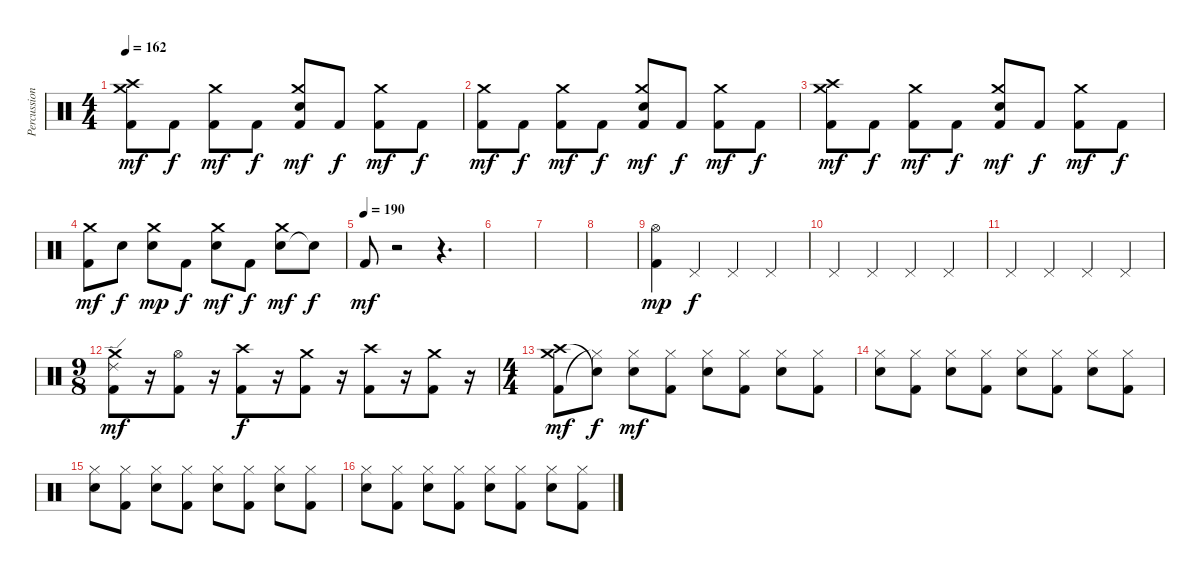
\track ("Percussion" "Percussion") {instrument percussion}
\staff {score}
\articulation defaults
\ts (4 4)
\tempo 162
\clef neutral
\ks c
("Kick (hit) 2" "Crash high (hit)" "Crash medium (hit)").8{dy mf} "Kick (hit) 2".8{dy f} ("Kick (hit) 2" "Crash medium (hit)").8{dy mf} "Kick (hit) 2".8{dy f} ("Kick (hit) 2" "Snare (hit) 2" "Crash medium (hit)").8{dy mf} "Kick (hit) 2".8{dy f} ("Kick (hit) 2" "Crash medium (hit)").8{dy mf} "Kick (hit) 2".8{dy f} |
("Kick (hit) 2" "Crash medium (hit)").8{dy mf} "Kick (hit) 2".8{dy f} ("Kick (hit) 2" "Crash medium (hit)").8{dy mf} "Kick (hit) 2".8{dy f} ("Kick (hit) 2" "Snare (hit) 2" "Crash medium (hit)").8{dy mf} "Kick (hit) 2".8{dy f} ("Kick (hit) 2" "Crash medium (hit)").8{dy mf} "Kick (hit) 2".8{dy f} |
("Kick (hit) 2" "Crash high (hit)" "Crash medium (hit)").8{dy mf} "Kick (hit) 2".8{dy f} ("Kick (hit) 2" "Crash medium (hit)").8{dy mf} "Kick (hit) 2".8{dy f} ("Kick (hit) 2" "Snare (hit) 2" "Crash medium (hit)").8{dy mf} "Kick (hit) 2".8{dy f} ("Kick (hit) 2" "Crash medium (hit)").8{dy mf} "Kick (hit) 2".8{dy f} |
("Kick (hit) 2" "Crash medium (hit)").8{dy mf} "Snare (hit) 2".8{dy f} ("Snare (hit) 2" "Crash medium (hit)").8{dy mp} "Kick (hit) 2".8{dy f} ("Snare (hit) 2" "Crash medium (hit)").8{dy mf} "Kick (hit) 2".8{dy f} ("Snare (hit) 2" "Crash medium (hit)").8{dy mf} "Snare (hit)"{t}.8{dy f} |
\tempo (190)
"Kick (hit) 2".8{dy mf} r.2 r.4{d} |
|
|
|
("Kick (hit) 2" "Hi-Hat (open)").4{dy mp} "Pedal Hi-Hat (hit)".4{dy f} "Pedal Hi-Hat (hit)".4 "Pedal Hi-Hat (hit)".4 |
"Pedal Hi-Hat (hit)".4 "Pedal Hi-Hat (hit)".4 "Pedal Hi-Hat (hit)".4 "Pedal Hi-Hat (hit)".4 |
"Pedal Hi-Hat (hit)".4 "Pedal Hi-Hat (hit)".4 "Pedal Hi-Hat (hit)".4 "Pedal Hi-Hat (hit)".4 |
\ts (9 8)
("Kick (hit) 2" "Crash medium (hit)" "Ride (edge) 2").8{dy mf} r.16 ("Kick (hit) 2" "Hi-Hat (open)").8 r.16 ("Kick (hit) 2" "Crash high (hit)").8{dy f} r.16 ("Kick (hit) 2" "Crash medium (hit)").8 r.16 ("Kick (hit) 2" "Crash high (hit)").8 r.16 ("Kick (hit) 2" "Crash medium (hit)").8 r.16 |
\ts (4 4)
("Kick (hit) 2" "Crash high (hit)" "Crash medium (hit)").8{dy mf} ("Hi-Hat (closed)"{t} "Snare (hit)"{t}).8{dy f} ("Snare (hit) 2" "Hi-Hat (closed)").8{dy mf} ("Kick (hit) 2" "Hi-Hat (closed)").8 ("Snare (hit) 2" "Hi-Hat (closed)").8 ("Kick (hit) 2" "Hi-Hat (closed)").8 ("Snare (hit) 2" "Hi-Hat (closed)").8 ("Kick (hit) 2" "Hi-Hat (closed)").8 |
("Snare (hit) 2" "Hi-Hat (closed)").8 ("Kick (hit) 2" "Hi-Hat (closed)").8 ("Snare (hit) 2" "Hi-Hat (closed)").8 ("Kick (hit) 2" "Hi-Hat (closed)").8 ("Snare (hit) 2" "Hi-Hat (closed)").8 ("Kick (hit) 2" "Hi-Hat (closed)").8 ("Snare (hit) 2" "Hi-Hat (closed)").8 ("Kick (hit) 2" "Hi-Hat (closed)").8 |
("Snare (hit) 2" "Hi-Hat (closed)").8 ("Kick (hit) 2" "Hi-Hat (closed)").8 ("Snare (hit) 2" "Hi-Hat (closed)").8 ("Kick (hit) 2" "Hi-Hat (closed)").8 ("Snare (hit) 2" "Hi-Hat (closed)").8 ("Kick (hit) 2" "Hi-Hat (closed)").8 ("Snare (hit) 2" "Hi-Hat (closed)").8 ("Kick (hit) 2" "Hi-Hat (closed)").8 |
("Snare (hit) 2" "Hi-Hat (closed)").8 ("Kick (hit) 2" "Hi-Hat (closed)").8 ("Snare (hit) 2" "Hi-Hat (closed)").8 ("Kick (hit) 2" "Hi-Hat (closed)").8 ("Snare (hit) 2" "Hi-Hat (closed)").8 ("Kick (hit) 2" "Hi-Hat (closed)").8 ("Snare (hit) 2" "Hi-Hat (closed)").8 ("Kick (hit) 2" "Hi-Hat (closed)").8
